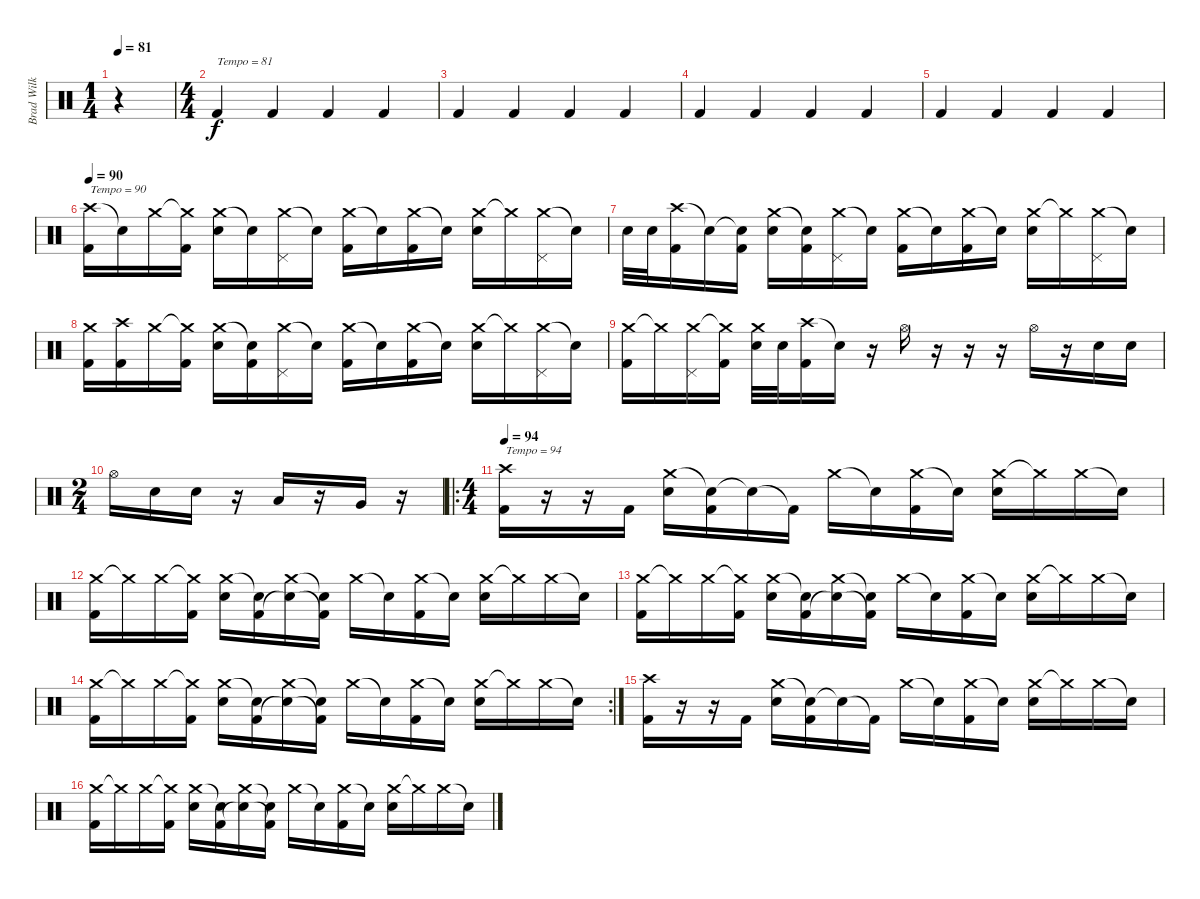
\track ("Brad Wilk (Drums)" "Brad Wilk ") {instrument percussion}
\staff {score}
\articulation defaults
\ts (1 4)
\tempo 81
\clef neutral
\ks c
r.4{dy f} |
\ts (4 4)
"Kick (hit) 2".4{txt "Tempo = 81"} "Kick (hit) 2".4 "Kick (hit) 2".4 "Kick (hit) 2".4 |
"Kick (hit) 2".4 "Kick (hit) 2".4 "Kick (hit) 2".4 "Kick (hit) 2".4 |
"Kick (hit) 2".4 "Kick (hit) 2".4 "Kick (hit) 2".4 "Kick (hit) 2".4 |
"Kick (hit) 2".4 "Kick (hit) 2".4 "Kick (hit) 2".4 "Kick (hit) 2".4 |
\tempo 90
("Crash high (hit)" "Kick (hit) 2").16{txt "Tempo = 90"} "Snare (hit)"{t}.16 "Crash medium (hit)".16 ("Crash medium (hit)"{t} "Kick (hit) 2").16 ("Crash medium (hit)" "Snare (hit) 2").16 "Snare (hit)"{t}.16 ("Crash medium (hit)" "Pedal Hi-Hat (hit)").16 "Snare (hit)"{t}.16 ("Crash medium (hit)" "Kick (hit) 2").16 "Snare (hit)"{t}.16 ("Crash medium (hit)" "Kick (hit) 2").16 "Snare (hit)"{t}.16 ("Crash medium (hit)" "Snare (hit) 2").16 "Crash medium (hit)"{t}.16 ("Crash medium (hit)" "Pedal Hi-Hat (hit)").16 "Snare (hit)"{t}.16 |
"Snare (hit) 2".32 "Snare (hit) 2".32 ("Crash high (hit)" "Kick (hit) 2").16 "Snare (hit)"{t}.16 ("Snare (hit)"{t} "Kick (hit) 2").16 ("Crash medium (hit)" "Snare (hit) 2").16 ("Snare (hit)"{t} "Kick (hit) 2").16 ("Crash medium (hit)" "Pedal Hi-Hat (hit)").16 "Snare (hit)"{t}.16 ("Crash medium (hit)" "Kick (hit) 2").16 "Snare (hit)"{t}.16 ("Crash medium (hit)" "Kick (hit) 2").16 "Snare (hit)"{t}.16 ("Crash medium (hit)" "Snare (hit) 2").16 "Crash medium (hit)"{t}.16 ("Crash medium (hit)" "Pedal Hi-Hat (hit)").16 "Snare (hit)"{t}.16 |
("Crash medium (hit)" "Kick (hit) 2").16 ("Crash high (hit)" "Kick (hit) 2").16 "Crash medium (hit)".16 ("Crash medium (hit)"{t} "Kick (hit) 2").16 ("Crash medium (hit)" "Snare (hit) 2").16 ("Snare (hit)"{t} "Kick (hit) 2").16 ("Crash medium (hit)" "Pedal Hi-Hat (hit)").16 "Snare (hit)"{t}.16 ("Crash medium (hit)" "Kick (hit) 2").16 "Snare (hit)"{t}.16 ("Crash medium (hit)" "Kick (hit) 2").16 "Snare (hit)"{t}.16 ("Crash medium (hit)" "Snare (hit) 2").16 "Crash medium (hit)"{t}.16 ("Crash medium (hit)" "Pedal Hi-Hat (hit)").16 "Snare (hit)"{t}.16 |
("Crash medium (hit)" "Kick (hit) 2").16 "Crash medium (hit)"{t}.16 ("Crash medium (hit)" "Pedal Hi-Hat (hit)").16 ("Crash medium (hit)"{t} "Kick (hit) 2").16 ("Crash medium (hit)" "Snare (hit) 2").32 "Snare (hit) 2".32 ("Crash high (hit)" "Kick (hit) 2").16 "Snare (hit)"{t}.16 r.16 "Hi-Hat (open)".16 r.16 r.16 r.16 "Hi-Hat (open)".16 r.16 "Snare (hit) 2".16 "Snare (hit) 2".16 |
\ts (2 4)
"Hi-Hat (open)".16 "Snare (hit) 2".16 "Snare (hit) 2".16 r.16 "Low Tom (hit)".16 r.16 "Very Low Tom (hit)".16 r.16 |
\ro
\ts (4 4)
\tempo 94
("Crash high (hit)" "Kick (hit) 2").16{txt "Tempo = 94"} r.16 r.16 "Kick (hit) 2".16 ("Crash medium (hit)" "Snare (hit) 2").16 ("Snare (hit)"{t} "Kick (hit) 2").16 "Snare (hit)"{t}.16 "Kick (hit) 2"{t}.16 "Crash medium (hit)".16 "Snare (hit)"{t}.16 ("Crash medium (hit)" "Kick (hit) 2").16 "Snare (hit)"{t}.16 ("Crash medium (hit)" "Snare (hit) 2").16 "Crash medium (hit)"{t}.16 "Crash medium (hit)".16 "Snare (hit)"{t}.16 |
("Crash medium (hit)" "Kick (hit) 2").16 "Crash medium (hit)"{t}.16 "Crash medium (hit)".16 ("Crash medium (hit)"{t} "Kick (hit) 2").16 ("Crash medium (hit)" "Snare (hit) 2").16 ("Snare (hit)"{t} "Kick (hit) 2").16 ("Crash medium (hit)" "Snare (hit)"{t}).16 ("Snare (hit)"{t} "Kick (hit) 2"{t}).16 "Crash medium (hit)".16 "Snare (hit)"{t}.16 ("Crash medium (hit)" "Kick (hit) 2").16 "Snare (hit)"{t}.16 ("Crash medium (hit)" "Snare (hit) 2").16 "Crash medium (hit)"{t}.16 "Crash medium (hit)".16 "Snare (hit)"{t}.16 |
("Crash medium (hit)" "Kick (hit) 2").16 "Crash medium (hit)"{t}.16 "Crash medium (hit)".16 ("Crash medium (hit)"{t} "Kick (hit) 2").16 ("Crash medium (hit)" "Snare (hit) 2").16 ("Snare (hit)"{t} "Kick (hit) 2").16 ("Crash medium (hit)" "Snare (hit)"{t}).16 ("Snare (hit)"{t} "Kick (hit) 2"{t}).16 "Crash medium (hit)".16 "Snare (hit)"{t}.16 ("Crash medium (hit)" "Kick (hit) 2").16 "Snare (hit)"{t}.16 ("Crash medium (hit)" "Snare (hit) 2").16 "Crash medium (hit)"{t}.16 "Crash medium (hit)".16 "Snare (hit)"{t}.16 |
\rc 2
("Crash medium (hit)" "Kick (hit) 2").16 "Crash medium (hit)"{t}.16 "Crash medium (hit)".16 ("Crash medium (hit)"{t} "Kick (hit) 2").16 ("Crash medium (hit)" "Snare (hit) 2").16 ("Snare (hit)"{t} "Kick (hit) 2").16 ("Crash medium (hit)" "Snare (hit)"{t}).16 ("Snare (hit)"{t} "Kick (hit) 2"{t}).16 "Crash medium (hit)".16 "Snare (hit)"{t}.16 ("Crash medium (hit)" "Kick (hit) 2").16 "Snare (hit)"{t}.16 ("Crash medium (hit)" "Snare (hit) 2").16 "Crash medium (hit)"{t}.16 "Crash medium (hit)".16 "Snare (hit)"{t}.16 |
("Crash high (hit)" "Kick (hit) 2").16 r.16 r.16 "Kick (hit) 2".16 ("Crash medium (hit)" "Snare (hit) 2").16 ("Snare (hit)"{t} "Kick (hit) 2").16 "Snare (hit)"{t}.16 "Kick (hit) 2"{t}.16 "Crash medium (hit)".16 "Snare (hit)"{t}.16 ("Crash medium (hit)" "Kick (hit) 2").16 "Snare (hit)"{t}.16 ("Crash medium (hit)" "Snare (hit) 2").16 "Crash medium (hit)"{t}.16 "Crash medium (hit)".16 "Snare (hit)"{t}.16 |
("Crash medium (hit)" "Kick (hit) 2").16 "Crash medium (hit)"{t}.16 "Crash medium (hit)".16 ("Crash medium (hit)"{t} "Kick (hit) 2").16 ("Crash medium (hit)" "Snare (hit) 2").16 ("Snare (hit)"{t} "Kick (hit) 2").16 ("Crash medium (hit)" "Snare (hit)"{t}).16 ("Snare (hit)"{t} "Kick (hit) 2"{t}).16 "Crash medium (hit)".16 "Snare (hit)"{t}.16 ("Crash medium (hit)" "Kick (hit) 2").16 "Snare (hit)"{t}.16 ("Crash medium (hit)" "Snare (hit) 2").16 "Crash medium (hit)"{t}.16 "Crash medium (hit)".16 "Snare (hit)"{t}.16
